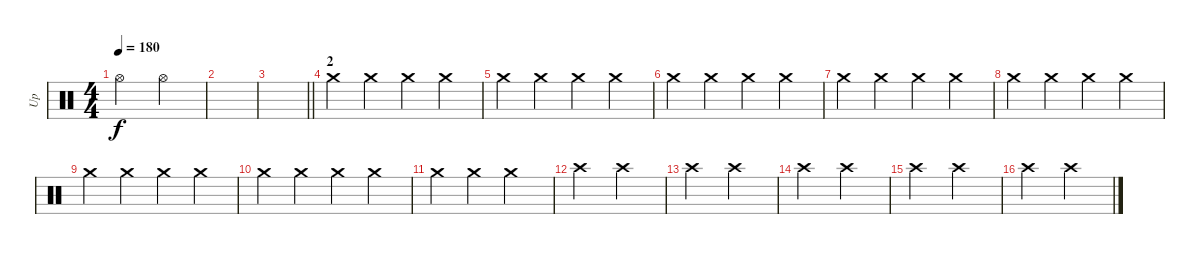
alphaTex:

\track ("Up" "Up") {instrument percussion}
\staff {score}
\articulation defaults
\ts (4 4)
\tempo 180
\clef neutral
\ks c "Hi-Hat (open)".2{dy f} "Hi-Hat (open)".2
|
|
\barLineRight lightlight
|
\section ("" "2")
"Crash medium (hit)".4 "Crash medium (hit)".4 "Crash medium (hit)".4 "Crash medium (hit)".4 |
"Crash medium (hit)".4 "Crash medium (hit)".4 "Crash medium (hit)".4 "Crash medium (hit)".4 |
"Crash medium (hit)".4 "Crash medium (hit)".4 "Crash medium (hit)".4 "Crash medium (hit)".4 |
"Crash medium (hit)".4 "Crash medium (hit)".4 "Crash medium (hit)".4 "Crash medium (hit)".4 |
"Crash medium (hit)".4 "Crash medium (hit)".4 "Crash medium (hit)".4 "Crash medium (hit)".4 |
"Crash medium (hit)".4 "Crash medium (hit)".4 "Crash medium (hit)".4 "Crash medium (hit)".4 |
"Crash medium (hit)".4 "Crash medium (hit)".4 "Crash medium (hit)".4 "Crash medium (hit)".4 |
"Crash medium (hit)".4 "Crash medium (hit)".4 "Crash medium (hit)".2 |
"Crash high (hit)".2 "Crash high (hit)".2 |
"Crash high (hit)".2 "Crash high (hit)".2 |
"Crash high (hit)".2 "Crash high (hit)".2 |
"Crash high (hit)".2 "Crash high (hit)".2 |
"Crash high (hit)".2 "Crash high (hit)".2
